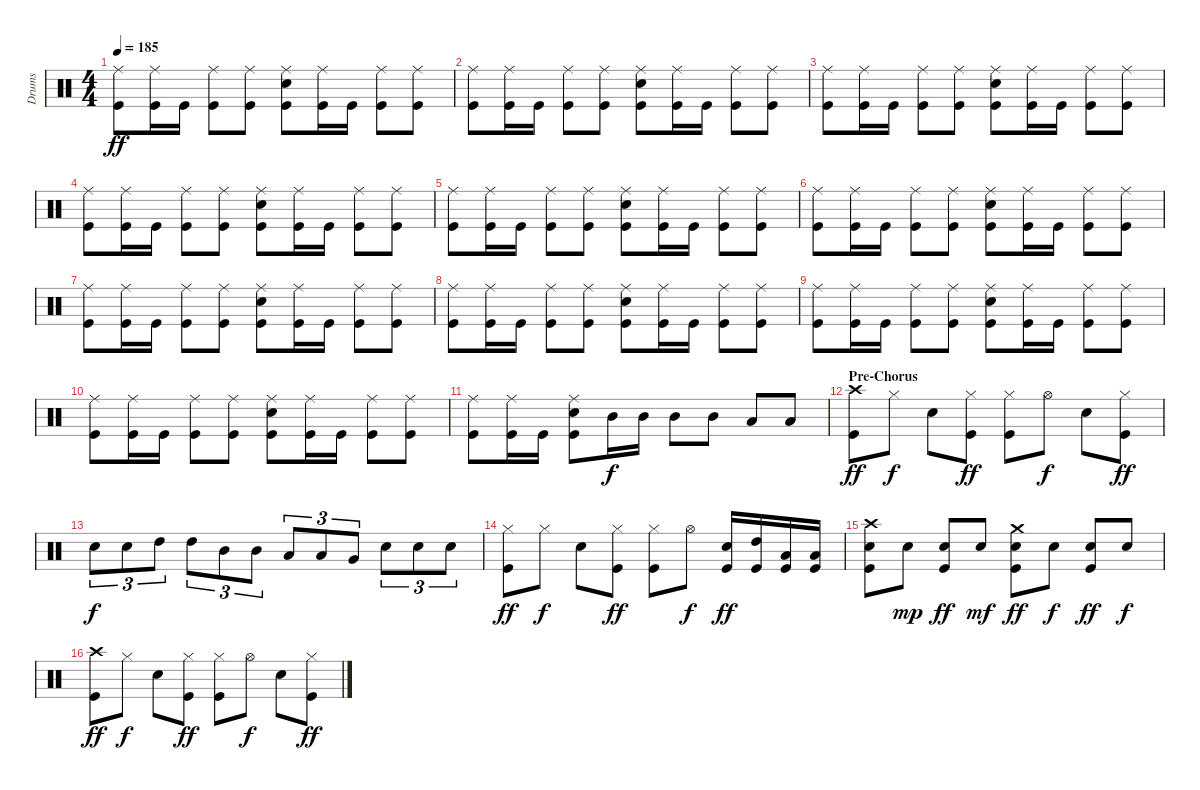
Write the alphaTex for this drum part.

\track ("Drums" "Drums") {instrument percussion}
\staff {score}
\articulation defaults
\ts (4 4)
\tempo 185
\clef neutral
\ks c
("Ride (middle)" "Kick (hit)").8{dy ff} ("Ride (middle)" "Kick (hit)").16 "Kick (hit)".16 ("Ride (middle)" "Kick (hit)").8 ("Ride (middle)" "Kick (hit)").8 ("Ride (middle)" "Snare (hit) 2" "Kick (hit)").8 ("Ride (middle)" "Kick (hit)").16 "Kick (hit)".16 ("Ride (middle)" "Kick (hit)").8 ("Ride (middle)" "Kick (hit)").8 |
("Ride (middle)" "Kick (hit)").8 ("Ride (middle)" "Kick (hit)").16 "Kick (hit)".16 ("Ride (middle)" "Kick (hit)").8 ("Ride (middle)" "Kick (hit)").8 ("Ride (middle)" "Snare (hit) 2" "Kick (hit)").8 ("Ride (middle)" "Kick (hit)").16 "Kick (hit)".16 ("Ride (middle)" "Kick (hit)").8 ("Ride (middle)" "Kick (hit)").8 |
("Ride (middle)" "Kick (hit)").8 ("Ride (middle)" "Kick (hit)").16 "Kick (hit)".16 ("Ride (middle)" "Kick (hit)").8 ("Ride (middle)" "Kick (hit)").8 ("Ride (middle)" "Snare (hit) 2" "Kick (hit)").8 ("Ride (middle)" "Kick (hit)").16 "Kick (hit)".16 ("Ride (middle)" "Kick (hit)").8 ("Ride (middle)" "Kick (hit)").8 |
("Ride (middle)" "Kick (hit)").8 ("Ride (middle)" "Kick (hit)").16 "Kick (hit)".16 ("Ride (middle)" "Kick (hit)").8 ("Ride (middle)" "Kick (hit)").8 ("Ride (middle)" "Snare (hit) 2" "Kick (hit)").8 ("Ride (middle)" "Kick (hit)").16 "Kick (hit)".16 ("Ride (middle)" "Kick (hit)").8 ("Ride (middle)" "Kick (hit)").8 |
("Ride (middle)" "Kick (hit)").8 ("Ride (middle)" "Kick (hit)").16 "Kick (hit)".16 ("Ride (middle)" "Kick (hit)").8 ("Ride (middle)" "Kick (hit)").8 ("Ride (middle)" "Snare (hit) 2" "Kick (hit)").8 ("Ride (middle)" "Kick (hit)").16 "Kick (hit)".16 ("Ride (middle)" "Kick (hit)").8 ("Ride (middle)" "Kick (hit)").8 |
("Ride (middle)" "Kick (hit)").8 ("Ride (middle)" "Kick (hit)").16 "Kick (hit)".16 ("Ride (middle)" "Kick (hit)").8 ("Ride (middle)" "Kick (hit)").8 ("Ride (middle)" "Snare (hit) 2" "Kick (hit)").8 ("Ride (middle)" "Kick (hit)").16 "Kick (hit)".16 ("Ride (middle)" "Kick (hit)").8 ("Ride (middle)" "Kick (hit)").8 |
("Ride (middle)" "Kick (hit)").8 ("Ride (middle)" "Kick (hit)").16 "Kick (hit)".16 ("Ride (middle)" "Kick (hit)").8 ("Ride (middle)" "Kick (hit)").8 ("Ride (middle)" "Snare (hit) 2" "Kick (hit)").8 ("Ride (middle)" "Kick (hit)").16 "Kick (hit)".16 ("Ride (middle)" "Kick (hit)").8 ("Ride (middle)" "Kick (hit)").8 |
("Ride (middle)" "Kick (hit)").8 ("Ride (middle)" "Kick (hit)").16 "Kick (hit)".16 ("Ride (middle)" "Kick (hit)").8 ("Ride (middle)" "Kick (hit)").8 ("Ride (middle)" "Snare (hit) 2" "Kick (hit)").8 ("Ride (middle)" "Kick (hit)").16 "Kick (hit)".16 ("Ride (middle)" "Kick (hit)").8 ("Ride (middle)" "Kick (hit)").8 |
("Ride (middle)" "Kick (hit)").8 ("Ride (middle)" "Kick (hit)").16 "Kick (hit)".16 ("Ride (middle)" "Kick (hit)").8 ("Ride (middle)" "Kick (hit)").8 ("Ride (middle)" "Snare (hit) 2" "Kick (hit)").8 ("Ride (middle)" "Kick (hit)").16 "Kick (hit)".16 ("Ride (middle)" "Kick (hit)").8 ("Ride (middle)" "Kick (hit)").8 |
("Ride (middle)" "Kick (hit)").8 ("Ride (middle)" "Kick (hit)").16 "Kick (hit)".16 ("Ride (middle)" "Kick (hit)").8 ("Ride (middle)" "Kick (hit)").8 ("Ride (middle)" "Snare (hit) 2" "Kick (hit)").8 ("Ride (middle)" "Kick (hit)").16 "Kick (hit)".16 ("Ride (middle)" "Kick (hit)").8 ("Ride (middle)" "Kick (hit)").8 |
("Ride (middle)" "Kick (hit)").8 ("Ride (middle)" "Kick (hit)").16 "Kick (hit)".16 ("Ride (middle)" "Snare (hit) 2" "Kick (hit)").8 "Mid Tom (hit)".16{dy f} "Mid Tom (hit)".16 "Mid Tom (hit)".8 "Mid Tom (hit)".8 "Low Tom (hit)".8 "Low Tom (hit)".8 |
\section ("" "Pre-Chorus")
("Crash high (hit)" "Kick (hit)").8{dy ff} "Hi-Hat (closed)".8{dy f} "Snare (hit) 2".8 ("Hi-Hat (closed)" "Kick (hit)").8{dy ff} ("Hi-Hat (closed)" "Kick (hit)").8 "Hi-Hat (open)".8{dy f} "Snare (hit) 2".8 ("Hi-Hat (closed)" "Kick (hit)").8{dy ff} |
"Snare (hit) 2".8{tu (3 2) dy f} "Snare (hit) 2".8{tu (3 2)} "High Tom (hit)".8{tu (3 2)} "High Tom (hit)".8{tu (3 2)} "Mid Tom (hit)".8{tu (3 2)} "Mid Tom (hit)".8{tu (3 2)} "Low Tom (hit)".8{tu (3 2)} "Low Tom (hit)".8{tu (3 2)} "Very Low Tom (hit)".8{tu (3 2)} "Snare (hit) 2".8{tu (3 2)} "Snare (hit) 2".8{tu (3 2)} "Snare (hit) 2".8{tu (3 2)} |
("Hi-Hat (closed)" "Kick (hit)").8{dy ff} "Hi-Hat (closed)".8{dy f} "Snare (hit) 2".8 ("Hi-Hat (closed)" "Kick (hit)").8{dy ff} ("Hi-Hat (closed)" "Kick (hit)").8 "Hi-Hat (open)".8{dy f} ("Snare (hit) 2" "Kick (hit)").16{dy ff} ("High Tom (hit)" "Kick (hit)").16 ("Low Tom (hit)" "Kick (hit)").16 ("Low Floor Tom (hit)" "Kick (hit)").16 |
("Crash high (hit)" "Snare (hit) 2" "Kick (hit)").8 "Snare (hit) 2".8{dy mp} ("Snare (hit) 2" "Kick (hit)").8{dy ff} "Snare (hit) 2".8{dy mf} ("Crash medium (hit)" "Snare (hit) 2" "Kick (hit)").8{dy ff} "Snare (hit) 2".8{dy f} ("Snare (hit) 2" "Kick (hit)").8{dy ff} "Snare (hit) 2".8{dy f} |
("Crash high (hit)" "Kick (hit)").8{dy ff} "Hi-Hat (closed)".8{dy f} "Snare (hit) 2".8 ("Hi-Hat (closed)" "Kick (hit)").8{dy ff} ("Hi-Hat (closed)" "Kick (hit)").8 "Hi-Hat (open)".8{dy f} "Snare (hit) 2".8 ("Hi-Hat (closed)" "Kick (hit)").8{dy ff}
